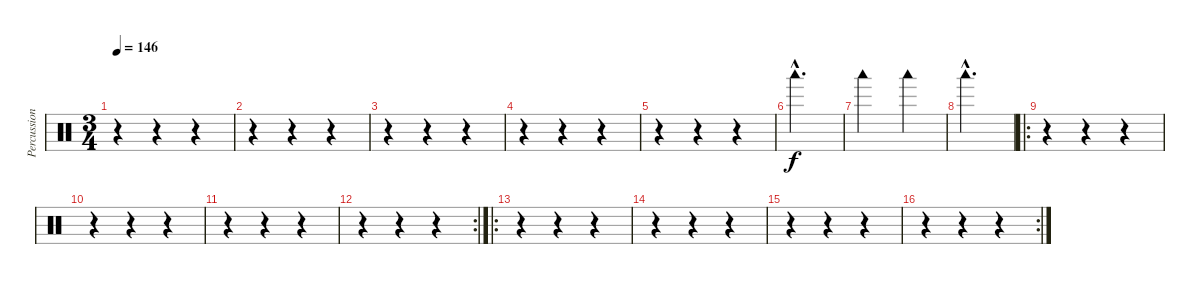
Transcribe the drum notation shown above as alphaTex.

\track ("Percussions" "Percussion") {instrument percussion}
\staff {score}
\articulation defaults
\ts (3 4)
\tempo 146
\clef neutral
\ks c
r.4{dy f} r.4 r.4 |
r.4 r.4 r.4 |
r.4 r.4 r.4 |
r.4 r.4 r.4 |
r.4 r.4 r.4 |
"Woodblock low (hit)"{hac}.2{d} |
"Woodblock low (hit)".2 "Woodblock low (hit)".4 |
"Woodblock low (hit)"{hac}.2{d} |
\ro
r.4 r.4 r.4 |
r.4 r.4 r.4 |
r.4 r.4 r.4 |
\rc 2
r.4 r.4 r.4 |
\ro
r.4 r.4 r.4 |
r.4 r.4 r.4 |
r.4 r.4 r.4 |
\rc 2
r.4 r.4 r.4
